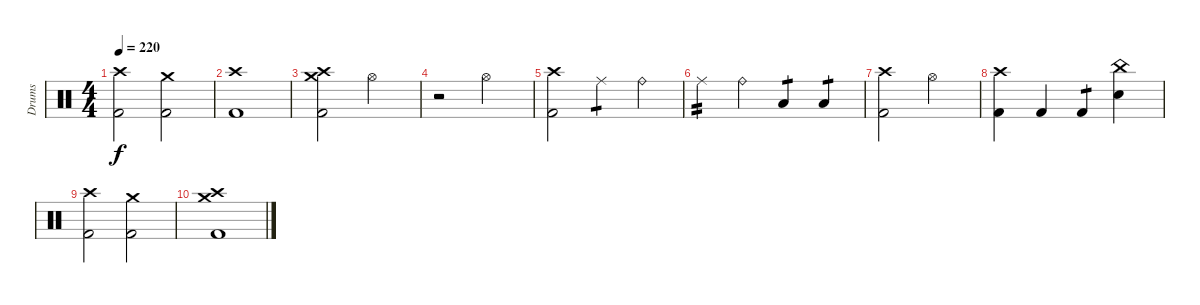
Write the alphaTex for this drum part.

\track ("Drums" "Drums") {instrument percussion}
\staff {score}
\articulation defaults
\ts (4 4)
\tempo 220
\clef neutral
\ks c
("Crash high (hit)" "Kick (hit) 2").2{dy f} ("Crash medium (hit)" "Kick (hit) 2").2 |
("Crash high (hit)" "Kick (hit) 2").1 |
("Crash high (hit)" "Crash medium (hit)" "Kick (hit) 2").2 "Hi-Hat (open)".2 |
r.2 "Hi-Hat (open)".2 |
("Crash high (hit)" "Kick (hit) 2").2 "Ride (middle)".4{tp 1} "Ride (bell)".4 |
"Ride (middle)".4{tp 2} "Ride (bell)".4 "Low Tom (hit)".4{tp 1} "Low Floor Tom (hit)".4{tp 1} |
("Crash high (hit)" "Kick (hit) 2").2 "Hi-Hat (open)".2 |
("Crash high (hit)" "Kick (hit) 2").4 "Kick (hit) 2".4 "Kick (hit) 2".4{tp 1} ("China (hit)" "Electric Snare (hit)").4 |
("Crash high (hit)" "Kick (hit) 2").2 ("Crash medium (hit)" "Kick (hit) 2").2 |
("Crash high (hit)" "Crash medium (hit)" "Kick (hit) 2").1
